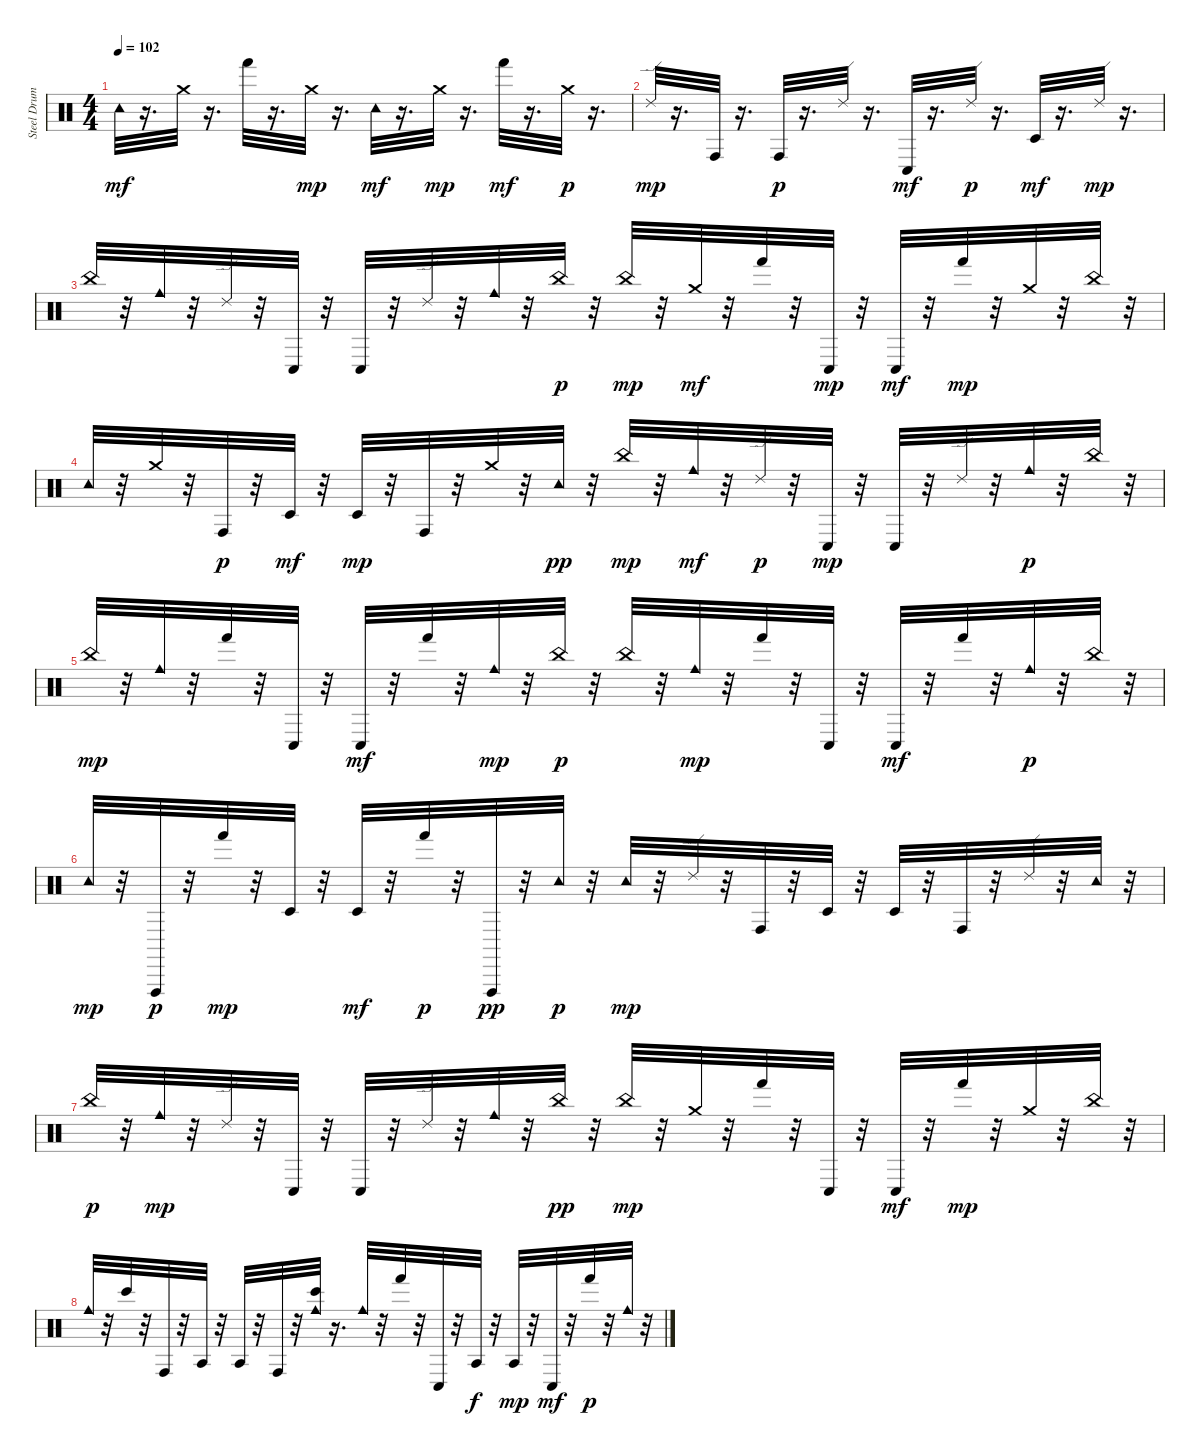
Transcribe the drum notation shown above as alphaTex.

\track ("Steel Drums" "Steel Drum") {instrument percussion}
\staff {score}
\articulation defaults
\ts (4 4)
\tempo 102
\clef neutral
\ks c "Tambourine (hit)".32{dy mf}
r.16{d} "Crash medium (hit)".32 r.16{d} "Hand (hit)".32 r.16{d} "Crash medium (hit)".32{dy mp} r.16{d} "Tambourine (hit)".32{dy mf} r.16{d} "Crash medium (hit)".32{dy mp} r.16{d} "Hand (hit)".32{dy mf} r.16{d} "Crash medium (hit)".32{dy p} r.16{d} |
"Ride (edge) 2".32{dy mp} r.16{d} "Conga high (hit)".32 r.16{d} "Conga high (hit)".32{dy p} r.16{d} "Ride (edge) 2".32 r.16{d} "Conga low (hit)".32{dy mf} r.16{d} "Ride (edge) 2".32{dy p} r.16{d} "Timbale low (hit)".32{dy mf} r.16{d} "Ride (edge) 2".32{dy mp} r.16{d} |
"China (hit)".32 r.32 "Cowbell medium (hit)".32 r.32 "Ride (edge) 2".32 r.32 "Conga low (hit)".32 r.32 "Conga low (hit)".32 r.32 "Ride (edge) 2".32 r.32 "Cowbell medium (hit)".32 r.32 "China (hit)".32{dy p} r.32 "China (hit)".32{dy mp} r.32 "Crash medium (hit)".32{dy mf} r.32 "Hand (hit)".32 r.32 "Conga low (hit)".32{dy mp} r.32 "Conga low (hit)".32{dy mf} r.32 "Hand (hit)".32{dy mp} r.32 "Crash medium (hit)".32 r.32 "China (hit)".32 r.32 |
"Tambourine (hit)".32 r.32 "Crash medium (hit)".32 r.32 "Conga high (hit)".32{dy p} r.32 "Timbale low (hit)".32{dy mf} r.32 "Timbale low (hit)".32{dy mp} r.32 "Conga high (hit)".32 r.32 "Crash medium (hit)".32 r.32 "Tambourine (hit)".32{dy pp} r.32 "China (hit)".32{dy mp} r.32 "Cowbell medium (hit)".32{dy mf} r.32 "Ride (edge) 2".32{dy p} r.32 "Conga low (hit)".32{dy mp} r.32 "Conga low (hit)".32 r.32 "Ride (edge) 2".32 r.32 "Cowbell medium (hit)".32{dy p} r.32 "China (hit)".32 r.32 |
"China (hit)".32{dy mp} r.32 "Cowbell medium (hit)".32 r.32 "Hand (hit)".32 r.32 "Conga low (hit)".32 r.32 "Conga low (hit)".32{dy mf} r.32 "Hand (hit)".32 r.32 "Cowbell medium (hit)".32{dy mp} r.32 "China (hit)".32{dy p} r.32 "China (hit)".32 r.32 "Cowbell medium (hit)".32{dy mp} r.32 "Hand (hit)".32 r.32 "Conga low (hit)".32 r.32 "Conga low (hit)".32{dy mf} r.32 "Hand (hit)".32 r.32 "Cowbell medium (hit)".32{dy p} r.32 "China (hit)".32 r.32 |
"Tambourine (hit)".32{dy mp} r.32 "Vibraslap (hit)".32{dy p} r.32 "Hand (hit)".32{dy mp} r.32 "Timbale low (hit)".32 r.32 "Timbale low (hit)".32{dy mf} r.32 "Hand (hit)".32{dy p} r.32 "Vibraslap (hit)".32{dy pp} r.32 "Tambourine (hit)".32{dy p} r.32 "Tambourine (hit)".32{dy mp} r.32 "Ride (edge) 2".32 r.32 "Conga high (hit)".32 r.32 "Timbale low (hit)".32 r.32 "Timbale low (hit)".32 r.32 "Conga high (hit)".32 r.32 "Ride (edge) 2".32 r.32 "Tambourine (hit)".32 r.32 |
"China (hit)".32{dy p} r.32 "Cowbell medium (hit)".32{dy mp} r.32 "Ride (edge) 2".32 r.32 "Conga low (hit)".32 r.32 "Conga low (hit)".32 r.32 "Ride (edge) 2".32 r.32 "Cowbell medium (hit)".32 r.32 "China (hit)".32{dy pp} r.32 "China (hit)".32{dy mp} r.32 "Crash medium (hit)".32 r.32 "Hand (hit)".32 r.32 "Conga low (hit)".32 r.32 "Conga low (hit)".32{dy mf} r.32 "Hand (hit)".32{dy mp} r.32 "Crash medium (hit)".32 r.32 "China (hit)".32 r.32 |
"Cowbell medium (hit)".32 r.32 "Bongo High (hit)".32 r.32 "Conga high (hit)".32 r.32 "Agogo tow (hit)".32 r.32 "Agogo tow (hit)".32 r.32 "Conga high (hit)".32 r.32 ("Cowbell medium (hit)" "Bongo High (hit)").32 r.16{d} "Cowbell medium (hit)".32 r.32 "Hand (hit)".32 r.32 "Conga low (hit)".32 r.32 "Agogo tow (hit)".32{dy f} r.32 "Agogo tow (hit)".32{dy mp} r.32 "Conga low (hit)".32{dy mf} r.32 "Hand (hit)".32{dy p} r.32 "Cowbell medium (hit)".32 r.32
